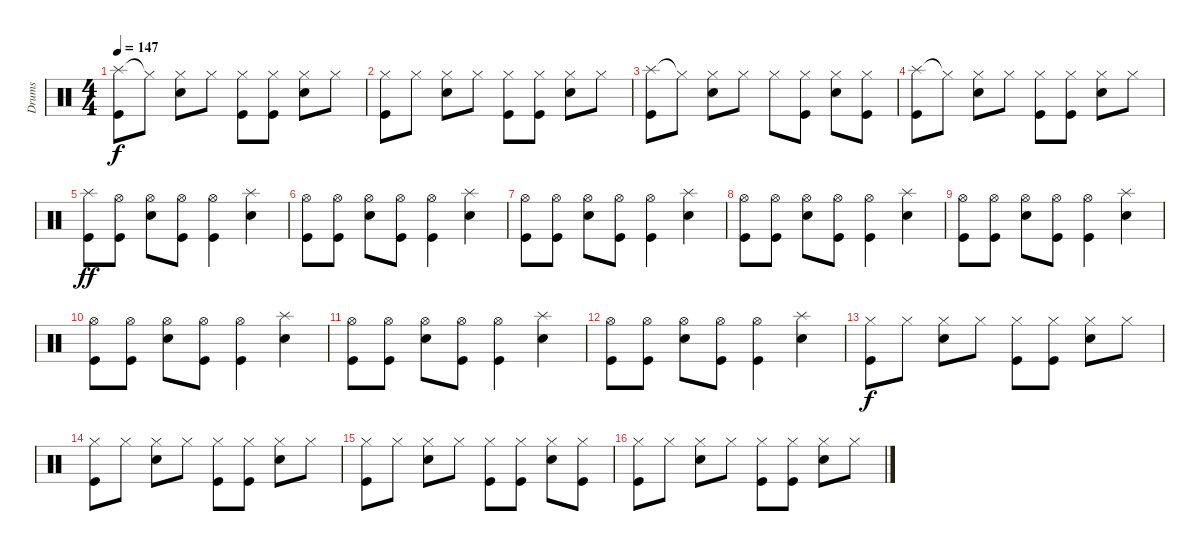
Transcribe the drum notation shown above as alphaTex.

\track ("Drums" "Drums") {instrument percussion}
\staff {score}
\articulation defaults
\ts (4 4)
\tempo 147
\clef neutral
\ks c
("Splash (hit)" "Kick (hit)").8{dy f} "Hi-Hat (closed)"{t}.8 ("Hi-Hat (closed)" "Snare (hit) 2").8 "Hi-Hat (closed)".8 ("Hi-Hat (closed)" "Kick (hit)").8 ("Hi-Hat (closed)" "Kick (hit)").8 ("Hi-Hat (closed)" "Snare (hit) 2").8 "Hi-Hat (closed)".8 |
("Hi-Hat (closed)" "Kick (hit)").8 "Hi-Hat (closed)".8 ("Hi-Hat (closed)" "Snare (hit) 2").8 "Hi-Hat (closed)".8 ("Hi-Hat (closed)" "Kick (hit)").8 ("Hi-Hat (closed)" "Kick (hit)").8 ("Hi-Hat (closed)" "Snare (hit) 2").8 "Hi-Hat (closed)".8 |
("Splash (hit)" "Kick (hit)").8 "Hi-Hat (closed)"{t}.8 ("Hi-Hat (closed)" "Snare (hit) 2").8 "Hi-Hat (closed)".8 "Hi-Hat (closed)".8 ("Hi-Hat (closed)" "Kick (hit)").8 ("Hi-Hat (closed)" "Snare (hit) 2").8 ("Hi-Hat (closed)" "Kick (hit)").8 |
("Splash (hit)" "Kick (hit)").8 "Hi-Hat (closed)"{t}.8 ("Hi-Hat (closed)" "Snare (hit) 2").8 "Hi-Hat (closed)".8 ("Hi-Hat (closed)" "Kick (hit)").8 ("Hi-Hat (closed)" "Kick (hit)").8 ("Hi-Hat (closed)" "Snare (hit) 2").8 "Hi-Hat (closed)".8 |
("Splash (hit)" "Kick (hit)").8{dy ff} ("Hi-Hat (open)" "Kick (hit)").8 ("Hi-Hat (open)" "Snare (hit) 2").8 ("Hi-Hat (open)" "Kick (hit)").8 ("Hi-Hat (open)" "Kick (hit)").4 ("Splash (hit)" "Snare (hit) 2").4 |
("Hi-Hat (open)" "Kick (hit)").8 ("Hi-Hat (open)" "Kick (hit)").8 ("Hi-Hat (open)" "Snare (hit) 2").8 ("Hi-Hat (open)" "Kick (hit)").8 ("Hi-Hat (open)" "Kick (hit)").4 ("Splash (hit)" "Snare (hit) 2").4 |
("Hi-Hat (open)" "Kick (hit)").8 ("Hi-Hat (open)" "Kick (hit)").8 ("Hi-Hat (open)" "Snare (hit) 2").8 ("Hi-Hat (open)" "Kick (hit)").8 ("Hi-Hat (open)" "Kick (hit)").4 ("Splash (hit)" "Snare (hit) 2").4 |
("Hi-Hat (open)" "Kick (hit)").8 ("Hi-Hat (open)" "Kick (hit)").8 ("Hi-Hat (open)" "Snare (hit) 2").8 ("Hi-Hat (open)" "Kick (hit)").8 ("Hi-Hat (open)" "Kick (hit)").4 ("Splash (hit)" "Snare (hit) 2").4 |
("Hi-Hat (open)" "Kick (hit)").8 ("Hi-Hat (open)" "Kick (hit)").8 ("Hi-Hat (open)" "Snare (hit) 2").8 ("Hi-Hat (open)" "Kick (hit)").8 ("Hi-Hat (open)" "Kick (hit)").4 ("Splash (hit)" "Snare (hit) 2").4 |
("Hi-Hat (open)" "Kick (hit)").8 ("Hi-Hat (open)" "Kick (hit)").8 ("Hi-Hat (open)" "Snare (hit) 2").8 ("Hi-Hat (open)" "Kick (hit)").8 ("Hi-Hat (open)" "Kick (hit)").4 ("Splash (hit)" "Snare (hit) 2").4 |
("Hi-Hat (open)" "Kick (hit)").8 ("Hi-Hat (open)" "Kick (hit)").8 ("Hi-Hat (open)" "Snare (hit) 2").8 ("Hi-Hat (open)" "Kick (hit)").8 ("Hi-Hat (open)" "Kick (hit)").4 ("Splash (hit)" "Snare (hit) 2").4 |
("Hi-Hat (open)" "Kick (hit)").8 ("Hi-Hat (open)" "Kick (hit)").8 ("Hi-Hat (open)" "Snare (hit) 2").8 ("Hi-Hat (open)" "Kick (hit)").8 ("Hi-Hat (open)" "Kick (hit)").4 ("Splash (hit)" "Snare (hit) 2").4 |
("Hi-Hat (closed)" "Kick (hit)").8{dy f} "Hi-Hat (closed)".8 ("Hi-Hat (closed)" "Snare (hit) 2").8 "Hi-Hat (closed)".8 ("Hi-Hat (closed)" "Kick (hit)").8 ("Hi-Hat (closed)" "Kick (hit)").8 ("Hi-Hat (closed)" "Snare (hit) 2").8 "Hi-Hat (closed)".8 |
("Hi-Hat (closed)" "Kick (hit)").8 "Hi-Hat (closed)".8 ("Hi-Hat (closed)" "Snare (hit) 2").8 "Hi-Hat (closed)".8 ("Hi-Hat (closed)" "Kick (hit)").8 ("Hi-Hat (closed)" "Kick (hit)").8 ("Hi-Hat (closed)" "Snare (hit) 2").8 "Hi-Hat (closed)".8 |
("Hi-Hat (closed)" "Kick (hit)").8 "Hi-Hat (closed)".8 ("Hi-Hat (closed)" "Snare (hit) 2").8 "Hi-Hat (closed)".8 ("Hi-Hat (closed)" "Kick (hit)").8 ("Hi-Hat (closed)" "Kick (hit)").8 ("Hi-Hat (closed)" "Snare (hit) 2").8 ("Hi-Hat (closed)" "Kick (hit)").8 |
("Hi-Hat (closed)" "Kick (hit)").8 "Hi-Hat (closed)".8 ("Hi-Hat (closed)" "Snare (hit) 2").8 "Hi-Hat (closed)".8 ("Hi-Hat (closed)" "Kick (hit)").8 ("Hi-Hat (closed)" "Kick (hit)").8 ("Hi-Hat (closed)" "Snare (hit) 2").8 "Hi-Hat (closed)".8
